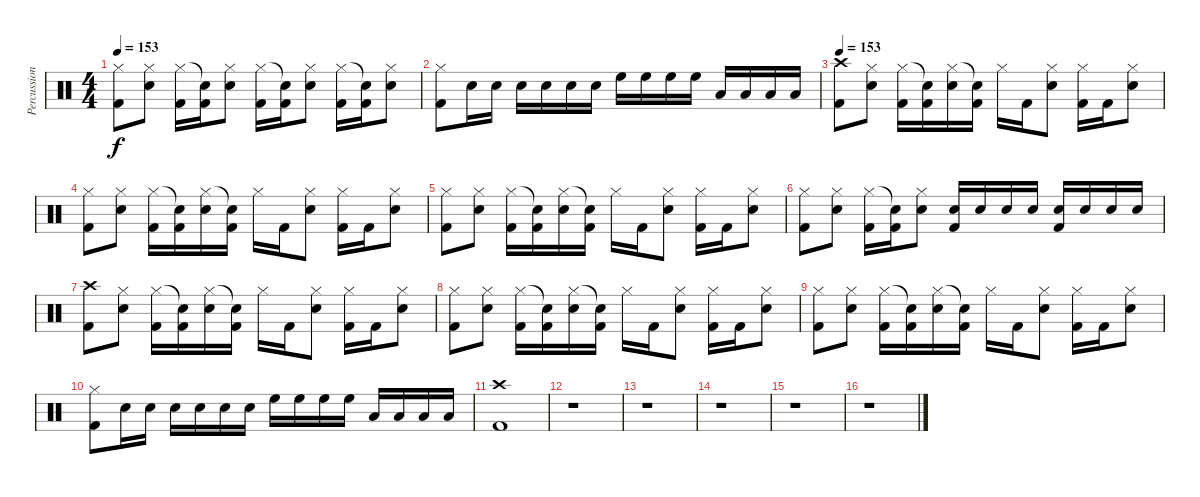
\track ("Percussion" "Percussion") {instrument percussion}
\staff {score}
\articulation defaults
\ts (4 4)
\tempo 153
\clef neutral
\ks c
("Hi-Hat (closed)" "Kick (hit) 2").8{dy f} ("Hi-Hat (closed)" "Snare (hit) 2").8 ("Hi-Hat (closed)" "Kick (hit) 2").16 ("Snare (hit)"{t} "Kick (hit) 2").16 ("Hi-Hat (closed)" "Snare (hit) 2").8 ("Hi-Hat (closed)" "Kick (hit) 2").16 ("Snare (hit)"{t} "Kick (hit) 2").16 ("Hi-Hat (closed)" "Snare (hit) 2").8 ("Hi-Hat (closed)" "Kick (hit) 2").16 ("Snare (hit)"{t} "Kick (hit) 2").16 ("Hi-Hat (closed)" "Snare (hit) 2").8 |
("Hi-Hat (closed)" "Kick (hit) 2").8 "Snare (hit) 2".16 "Snare (hit) 2".16 "Snare (hit) 2".16 "Snare (hit) 2".16 "Snare (hit) 2".16 "Snare (hit) 2".16 "High Floor Tom (hit)".16 "High Floor Tom (hit)".16 "High Floor Tom (hit)".16 "High Floor Tom (hit)".16 "Low Floor Tom (hit)".16 "Low Floor Tom (hit)".16 "Low Floor Tom (hit)".16 "Low Floor Tom (hit)".16 |
\tempo 153
("Crash high (hit)" "Kick (hit) 2").8 ("Hi-Hat (closed)" "Snare (hit) 2").8 ("Hi-Hat (closed)" "Kick (hit) 2").16 ("Snare (hit)"{t} "Kick (hit) 2").16 ("Hi-Hat (closed)" "Snare (hit) 2").16 ("Snare (hit)"{t} "Kick (hit) 2").16 "Hi-Hat (closed)".16 "Kick (hit) 2".16 ("Hi-Hat (closed)" "Snare (hit) 2").8 ("Hi-Hat (closed)" "Kick (hit) 2").16 "Kick (hit) 2".16 ("Hi-Hat (closed)" "Snare (hit) 2").8 |
("Hi-Hat (closed)" "Kick (hit) 2").8 ("Hi-Hat (closed)" "Snare (hit) 2").8 ("Hi-Hat (closed)" "Kick (hit) 2").16 ("Snare (hit)"{t} "Kick (hit) 2").16 ("Hi-Hat (closed)" "Snare (hit) 2").16 ("Snare (hit)"{t} "Kick (hit) 2").16 "Hi-Hat (closed)".16 "Kick (hit) 2".16 ("Hi-Hat (closed)" "Snare (hit) 2").8 ("Hi-Hat (closed)" "Kick (hit) 2").16 "Kick (hit) 2".16 ("Hi-Hat (closed)" "Snare (hit) 2").8 |
("Hi-Hat (closed)" "Kick (hit) 2").8 ("Hi-Hat (closed)" "Snare (hit) 2").8 ("Hi-Hat (closed)" "Kick (hit) 2").16 ("Snare (hit)"{t} "Kick (hit) 2").16 ("Hi-Hat (closed)" "Snare (hit) 2").16 ("Snare (hit)"{t} "Kick (hit) 2").16 "Hi-Hat (closed)".16 "Kick (hit) 2".16 ("Hi-Hat (closed)" "Snare (hit) 2").8 ("Hi-Hat (closed)" "Kick (hit) 2").16 "Kick (hit) 2".16 ("Hi-Hat (closed)" "Snare (hit) 2").8 |
("Hi-Hat (closed)" "Kick (hit) 2").8 ("Hi-Hat (closed)" "Snare (hit) 2").8 ("Hi-Hat (closed)" "Kick (hit) 2").16 ("Snare (hit)"{t} "Kick (hit) 2").16 ("Hi-Hat (closed)" "Snare (hit) 2").8 ("Snare (hit) 2" "Kick (hit) 2").16 "Snare (hit) 2".16 "Snare (hit) 2".16 "Snare (hit) 2".16 ("Snare (hit) 2" "Kick (hit) 2").16 "Snare (hit) 2".16 "Snare (hit) 2".16 "Snare (hit) 2".16 |
("Crash high (hit)" "Kick (hit) 2").8 ("Hi-Hat (closed)" "Snare (hit) 2").8 ("Hi-Hat (closed)" "Kick (hit) 2").16 ("Snare (hit)"{t} "Kick (hit) 2").16 ("Hi-Hat (closed)" "Snare (hit) 2").16 ("Snare (hit)"{t} "Kick (hit) 2").16 "Hi-Hat (closed)".16 "Kick (hit) 2".16 ("Hi-Hat (closed)" "Snare (hit) 2").8 ("Hi-Hat (closed)" "Kick (hit) 2").16 "Kick (hit) 2".16 ("Hi-Hat (closed)" "Snare (hit) 2").8 |
("Hi-Hat (closed)" "Kick (hit) 2").8 ("Hi-Hat (closed)" "Snare (hit) 2").8 ("Hi-Hat (closed)" "Kick (hit) 2").16 ("Snare (hit)"{t} "Kick (hit) 2").16 ("Hi-Hat (closed)" "Snare (hit) 2").16 ("Snare (hit)"{t} "Kick (hit) 2").16 "Hi-Hat (closed)".16 "Kick (hit) 2".16 ("Hi-Hat (closed)" "Snare (hit) 2").8 ("Hi-Hat (closed)" "Kick (hit) 2").16 "Kick (hit) 2".16 ("Hi-Hat (closed)" "Snare (hit) 2").8 |
("Hi-Hat (closed)" "Kick (hit) 2").8 ("Hi-Hat (closed)" "Snare (hit) 2").8 ("Hi-Hat (closed)" "Kick (hit) 2").16 ("Snare (hit)"{t} "Kick (hit) 2").16 ("Hi-Hat (closed)" "Snare (hit) 2").16 ("Snare (hit)"{t} "Kick (hit) 2").16 "Hi-Hat (closed)".16 "Kick (hit) 2".16 ("Hi-Hat (closed)" "Snare (hit) 2").8 ("Hi-Hat (closed)" "Kick (hit) 2").16 "Kick (hit) 2".16 ("Hi-Hat (closed)" "Snare (hit) 2").8 |
("Hi-Hat (closed)" "Kick (hit) 2").8 "Snare (hit) 2".16 "Snare (hit) 2".16 "Snare (hit) 2".16 "Snare (hit) 2".16 "Snare (hit) 2".16 "Snare (hit) 2".16 "High Floor Tom (hit)".16 "High Floor Tom (hit)".16 "High Floor Tom (hit)".16 "High Floor Tom (hit)".16 "Low Floor Tom (hit)".16 "Low Floor Tom (hit)".16 "Low Floor Tom (hit)".16 "Low Floor Tom (hit)".16 |
("Crash high (hit)" "Kick (hit) 2").1 |
r.1 |
r.1 |
r.1 |
r.1 |
r.1
